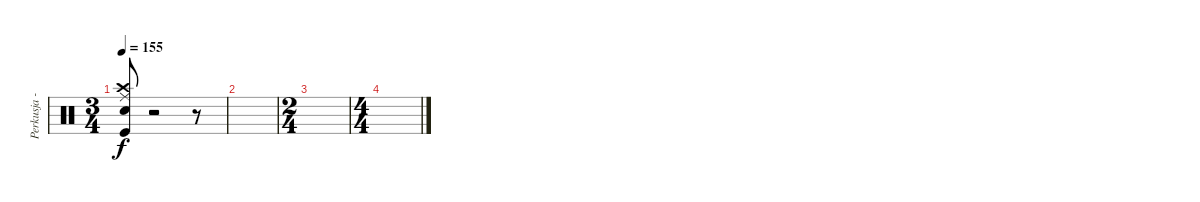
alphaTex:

\track ("Perkusja - Mielony" "Perkusja -") {instrument percussion}
\staff {score}
\articulation defaults
\ts (3 4)
\tempo 155
\clef neutral
\ks c
("Snare (hit) 2" "Ride (middle)" "Crash high (hit)" "Kick (hit)").8{dy f} r.2 r.8 |
|
\ts (2 4)
|
\ts (4 4)
